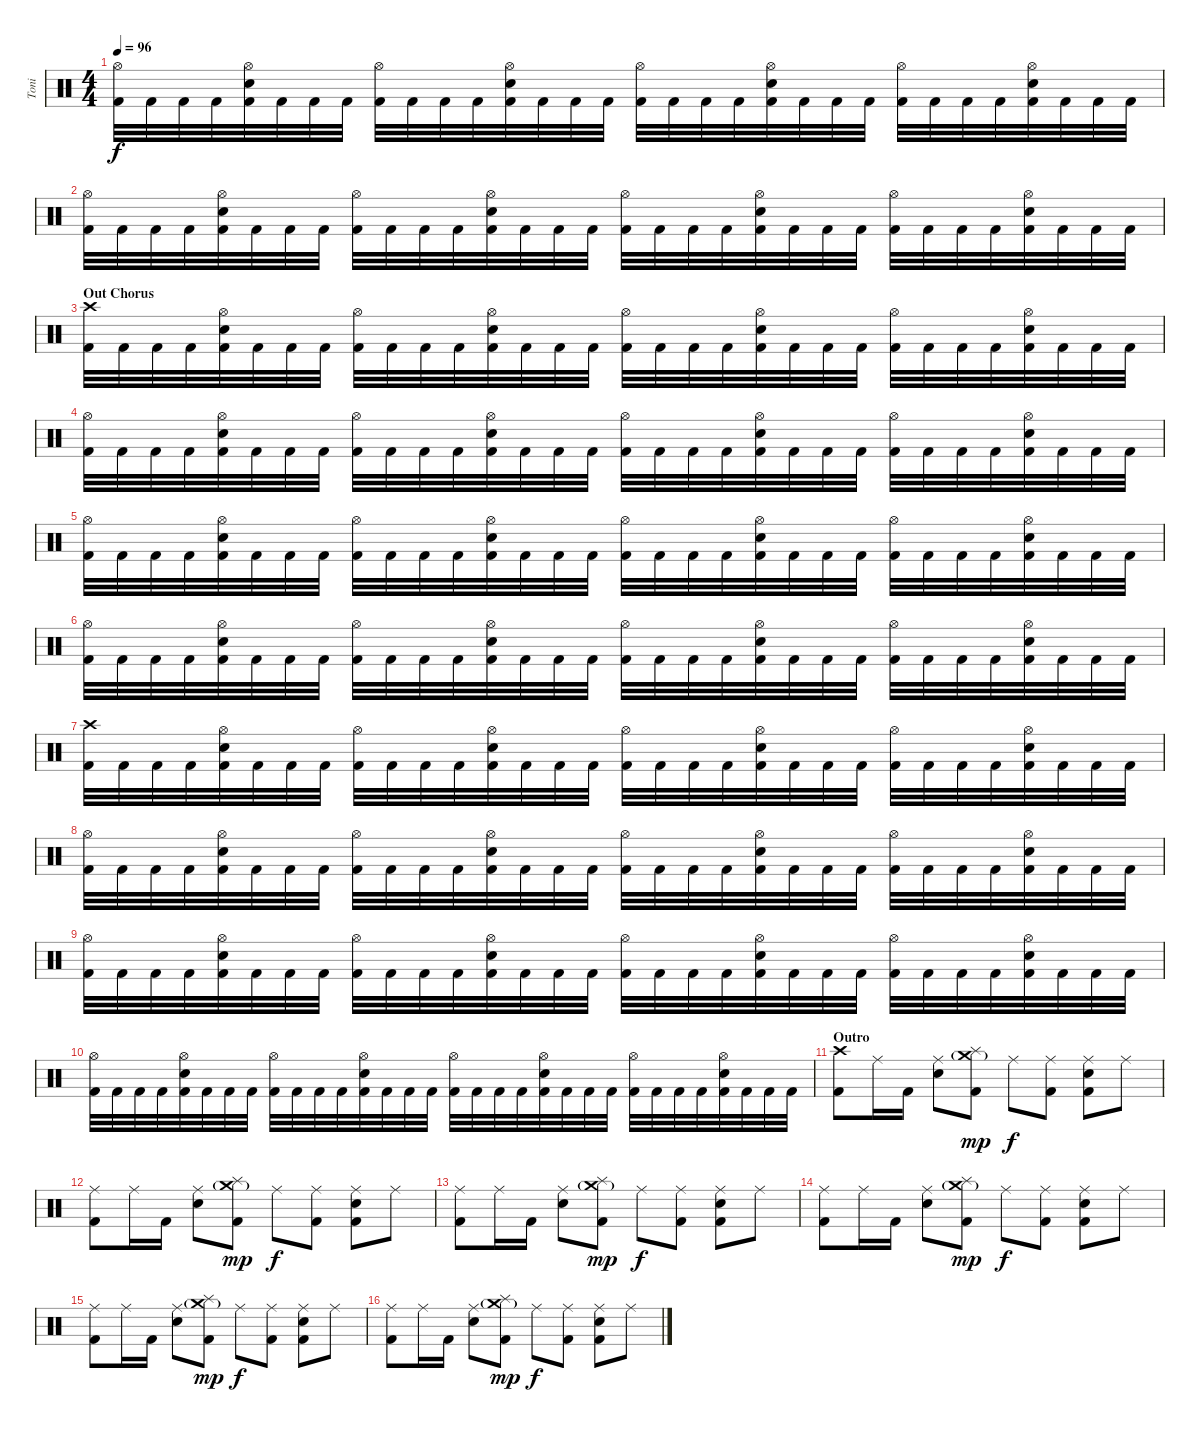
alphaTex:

\track ("Toni" "Toni") {instrument percussion}
\staff {score}
\articulation defaults
\ts (4 4)
\tempo 96
\clef neutral
\ks c
("Hi-Hat (open)" "Kick (hit) 2").32{dy f} "Kick (hit) 2".32 "Kick (hit) 2".32 "Kick (hit) 2".32 ("Hi-Hat (open)" "Electric Snare (hit)" "Kick (hit) 2").32 "Kick (hit) 2".32 "Kick (hit) 2".32 "Kick (hit) 2".32 ("Hi-Hat (open)" "Kick (hit) 2").32 "Kick (hit) 2".32 "Kick (hit) 2".32 "Kick (hit) 2".32 ("Hi-Hat (open)" "Electric Snare (hit)" "Kick (hit) 2").32 "Kick (hit) 2".32 "Kick (hit) 2".32 "Kick (hit) 2".32 ("Hi-Hat (open)" "Kick (hit) 2").32 "Kick (hit) 2".32 "Kick (hit) 2".32 "Kick (hit) 2".32 ("Hi-Hat (open)" "Electric Snare (hit)" "Kick (hit) 2").32 "Kick (hit) 2".32 "Kick (hit) 2".32 "Kick (hit) 2".32 ("Hi-Hat (open)" "Kick (hit) 2").32 "Kick (hit) 2".32 "Kick (hit) 2".32 "Kick (hit) 2".32 ("Hi-Hat (open)" "Electric Snare (hit)" "Kick (hit) 2").32 "Kick (hit) 2".32 "Kick (hit) 2".32 "Kick (hit) 2".32 |
("Hi-Hat (open)" "Kick (hit) 2").32 "Kick (hit) 2".32 "Kick (hit) 2".32 "Kick (hit) 2".32 ("Hi-Hat (open)" "Electric Snare (hit)" "Kick (hit) 2").32 "Kick (hit) 2".32 "Kick (hit) 2".32 "Kick (hit) 2".32 ("Hi-Hat (open)" "Kick (hit) 2").32 "Kick (hit) 2".32 "Kick (hit) 2".32 "Kick (hit) 2".32 ("Hi-Hat (open)" "Electric Snare (hit)" "Kick (hit) 2").32 "Kick (hit) 2".32 "Kick (hit) 2".32 "Kick (hit) 2".32 ("Hi-Hat (open)" "Kick (hit) 2").32 "Kick (hit) 2".32 "Kick (hit) 2".32 "Kick (hit) 2".32 ("Hi-Hat (open)" "Electric Snare (hit)" "Kick (hit) 2").32 "Kick (hit) 2".32 "Kick (hit) 2".32 "Kick (hit) 2".32 ("Hi-Hat (open)" "Kick (hit) 2").32 "Kick (hit) 2".32 "Kick (hit) 2".32 "Kick (hit) 2".32 ("Hi-Hat (open)" "Electric Snare (hit)" "Kick (hit) 2").32 "Kick (hit) 2".32 "Kick (hit) 2".32 "Kick (hit) 2".32 |
\section ("" "Out Chorus")
("Crash high (hit)" "Kick (hit) 2").32 "Kick (hit) 2".32 "Kick (hit) 2".32 "Kick (hit) 2".32 ("Hi-Hat (open)" "Electric Snare (hit)" "Kick (hit) 2").32 "Kick (hit) 2".32 "Kick (hit) 2".32 "Kick (hit) 2".32 ("Hi-Hat (open)" "Kick (hit) 2").32 "Kick (hit) 2".32 "Kick (hit) 2".32 "Kick (hit) 2".32 ("Hi-Hat (open)" "Electric Snare (hit)" "Kick (hit) 2").32 "Kick (hit) 2".32 "Kick (hit) 2".32 "Kick (hit) 2".32 ("Hi-Hat (open)" "Kick (hit) 2").32 "Kick (hit) 2".32 "Kick (hit) 2".32 "Kick (hit) 2".32 ("Hi-Hat (open)" "Electric Snare (hit)" "Kick (hit) 2").32 "Kick (hit) 2".32 "Kick (hit) 2".32 "Kick (hit) 2".32 ("Hi-Hat (open)" "Kick (hit) 2").32 "Kick (hit) 2".32 "Kick (hit) 2".32 "Kick (hit) 2".32 ("Hi-Hat (open)" "Electric Snare (hit)" "Kick (hit) 2").32 "Kick (hit) 2".32 "Kick (hit) 2".32 "Kick (hit) 2".32 |
("Hi-Hat (open)" "Kick (hit) 2").32 "Kick (hit) 2".32 "Kick (hit) 2".32 "Kick (hit) 2".32 ("Hi-Hat (open)" "Electric Snare (hit)" "Kick (hit) 2").32 "Kick (hit) 2".32 "Kick (hit) 2".32 "Kick (hit) 2".32 ("Hi-Hat (open)" "Kick (hit) 2").32 "Kick (hit) 2".32 "Kick (hit) 2".32 "Kick (hit) 2".32 ("Hi-Hat (open)" "Electric Snare (hit)" "Kick (hit) 2").32 "Kick (hit) 2".32 "Kick (hit) 2".32 "Kick (hit) 2".32 ("Hi-Hat (open)" "Kick (hit) 2").32 "Kick (hit) 2".32 "Kick (hit) 2".32 "Kick (hit) 2".32 ("Hi-Hat (open)" "Electric Snare (hit)" "Kick (hit) 2").32 "Kick (hit) 2".32 "Kick (hit) 2".32 "Kick (hit) 2".32 ("Hi-Hat (open)" "Kick (hit) 2").32 "Kick (hit) 2".32 "Kick (hit) 2".32 "Kick (hit) 2".32 ("Hi-Hat (open)" "Electric Snare (hit)" "Kick (hit) 2").32 "Kick (hit) 2".32 "Kick (hit) 2".32 "Kick (hit) 2".32 |
("Hi-Hat (open)" "Kick (hit) 2").32 "Kick (hit) 2".32 "Kick (hit) 2".32 "Kick (hit) 2".32 ("Hi-Hat (open)" "Electric Snare (hit)" "Kick (hit) 2").32 "Kick (hit) 2".32 "Kick (hit) 2".32 "Kick (hit) 2".32 ("Hi-Hat (open)" "Kick (hit) 2").32 "Kick (hit) 2".32 "Kick (hit) 2".32 "Kick (hit) 2".32 ("Hi-Hat (open)" "Electric Snare (hit)" "Kick (hit) 2").32 "Kick (hit) 2".32 "Kick (hit) 2".32 "Kick (hit) 2".32 ("Hi-Hat (open)" "Kick (hit) 2").32 "Kick (hit) 2".32 "Kick (hit) 2".32 "Kick (hit) 2".32 ("Hi-Hat (open)" "Electric Snare (hit)" "Kick (hit) 2").32 "Kick (hit) 2".32 "Kick (hit) 2".32 "Kick (hit) 2".32 ("Hi-Hat (open)" "Kick (hit) 2").32 "Kick (hit) 2".32 "Kick (hit) 2".32 "Kick (hit) 2".32 ("Hi-Hat (open)" "Electric Snare (hit)" "Kick (hit) 2").32 "Kick (hit) 2".32 "Kick (hit) 2".32 "Kick (hit) 2".32 |
("Hi-Hat (open)" "Kick (hit) 2").32 "Kick (hit) 2".32 "Kick (hit) 2".32 "Kick (hit) 2".32 ("Hi-Hat (open)" "Electric Snare (hit)" "Kick (hit) 2").32 "Kick (hit) 2".32 "Kick (hit) 2".32 "Kick (hit) 2".32 ("Hi-Hat (open)" "Kick (hit) 2").32 "Kick (hit) 2".32 "Kick (hit) 2".32 "Kick (hit) 2".32 ("Hi-Hat (open)" "Electric Snare (hit)" "Kick (hit) 2").32 "Kick (hit) 2".32 "Kick (hit) 2".32 "Kick (hit) 2".32 ("Hi-Hat (open)" "Kick (hit) 2").32 "Kick (hit) 2".32 "Kick (hit) 2".32 "Kick (hit) 2".32 ("Hi-Hat (open)" "Electric Snare (hit)" "Kick (hit) 2").32 "Kick (hit) 2".32 "Kick (hit) 2".32 "Kick (hit) 2".32 ("Hi-Hat (open)" "Kick (hit) 2").32 "Kick (hit) 2".32 "Kick (hit) 2".32 "Kick (hit) 2".32 ("Hi-Hat (open)" "Electric Snare (hit)" "Kick (hit) 2").32 "Kick (hit) 2".32 "Kick (hit) 2".32 "Kick (hit) 2".32 |
("Crash high (hit)" "Kick (hit) 2").32 "Kick (hit) 2".32 "Kick (hit) 2".32 "Kick (hit) 2".32 ("Hi-Hat (open)" "Electric Snare (hit)" "Kick (hit) 2").32 "Kick (hit) 2".32 "Kick (hit) 2".32 "Kick (hit) 2".32 ("Hi-Hat (open)" "Kick (hit) 2").32 "Kick (hit) 2".32 "Kick (hit) 2".32 "Kick (hit) 2".32 ("Hi-Hat (open)" "Electric Snare (hit)" "Kick (hit) 2").32 "Kick (hit) 2".32 "Kick (hit) 2".32 "Kick (hit) 2".32 ("Hi-Hat (open)" "Kick (hit) 2").32 "Kick (hit) 2".32 "Kick (hit) 2".32 "Kick (hit) 2".32 ("Hi-Hat (open)" "Electric Snare (hit)" "Kick (hit) 2").32 "Kick (hit) 2".32 "Kick (hit) 2".32 "Kick (hit) 2".32 ("Hi-Hat (open)" "Kick (hit) 2").32 "Kick (hit) 2".32 "Kick (hit) 2".32 "Kick (hit) 2".32 ("Hi-Hat (open)" "Electric Snare (hit)" "Kick (hit) 2").32 "Kick (hit) 2".32 "Kick (hit) 2".32 "Kick (hit) 2".32 |
("Hi-Hat (open)" "Kick (hit) 2").32 "Kick (hit) 2".32 "Kick (hit) 2".32 "Kick (hit) 2".32 ("Hi-Hat (open)" "Electric Snare (hit)" "Kick (hit) 2").32 "Kick (hit) 2".32 "Kick (hit) 2".32 "Kick (hit) 2".32 ("Hi-Hat (open)" "Kick (hit) 2").32 "Kick (hit) 2".32 "Kick (hit) 2".32 "Kick (hit) 2".32 ("Hi-Hat (open)" "Electric Snare (hit)" "Kick (hit) 2").32 "Kick (hit) 2".32 "Kick (hit) 2".32 "Kick (hit) 2".32 ("Hi-Hat (open)" "Kick (hit) 2").32 "Kick (hit) 2".32 "Kick (hit) 2".32 "Kick (hit) 2".32 ("Hi-Hat (open)" "Electric Snare (hit)" "Kick (hit) 2").32 "Kick (hit) 2".32 "Kick (hit) 2".32 "Kick (hit) 2".32 ("Hi-Hat (open)" "Kick (hit) 2").32 "Kick (hit) 2".32 "Kick (hit) 2".32 "Kick (hit) 2".32 ("Hi-Hat (open)" "Electric Snare (hit)" "Kick (hit) 2").32 "Kick (hit) 2".32 "Kick (hit) 2".32 "Kick (hit) 2".32 |
("Hi-Hat (open)" "Kick (hit) 2").32 "Kick (hit) 2".32 "Kick (hit) 2".32 "Kick (hit) 2".32 ("Hi-Hat (open)" "Electric Snare (hit)" "Kick (hit) 2").32 "Kick (hit) 2".32 "Kick (hit) 2".32 "Kick (hit) 2".32 ("Hi-Hat (open)" "Kick (hit) 2").32 "Kick (hit) 2".32 "Kick (hit) 2".32 "Kick (hit) 2".32 ("Hi-Hat (open)" "Electric Snare (hit)" "Kick (hit) 2").32 "Kick (hit) 2".32 "Kick (hit) 2".32 "Kick (hit) 2".32 ("Hi-Hat (open)" "Kick (hit) 2").32 "Kick (hit) 2".32 "Kick (hit) 2".32 "Kick (hit) 2".32 ("Hi-Hat (open)" "Electric Snare (hit)" "Kick (hit) 2").32 "Kick (hit) 2".32 "Kick (hit) 2".32 "Kick (hit) 2".32 ("Hi-Hat (open)" "Kick (hit) 2").32 "Kick (hit) 2".32 "Kick (hit) 2".32 "Kick (hit) 2".32 ("Hi-Hat (open)" "Electric Snare (hit)" "Kick (hit) 2").32 "Kick (hit) 2".32 "Kick (hit) 2".32 "Kick (hit) 2".32 |
("Hi-Hat (open)" "Kick (hit) 2").32 "Kick (hit) 2".32 "Kick (hit) 2".32 "Kick (hit) 2".32 ("Hi-Hat (open)" "Electric Snare (hit)" "Kick (hit) 2").32 "Kick (hit) 2".32 "Kick (hit) 2".32 "Kick (hit) 2".32 ("Hi-Hat (open)" "Kick (hit) 2").32 "Kick (hit) 2".32 "Kick (hit) 2".32 "Kick (hit) 2".32 ("Hi-Hat (open)" "Electric Snare (hit)" "Kick (hit) 2").32 "Kick (hit) 2".32 "Kick (hit) 2".32 "Kick (hit) 2".32 ("Hi-Hat (open)" "Kick (hit) 2").32 "Kick (hit) 2".32 "Kick (hit) 2".32 "Kick (hit) 2".32 ("Hi-Hat (open)" "Electric Snare (hit)" "Kick (hit) 2").32 "Kick (hit) 2".32 "Kick (hit) 2".32 "Kick (hit) 2".32 ("Hi-Hat (open)" "Kick (hit) 2").32 "Kick (hit) 2".32 "Kick (hit) 2".32 "Kick (hit) 2".32 ("Hi-Hat (open)" "Electric Snare (hit)" "Kick (hit) 2").32 "Kick (hit) 2".32 "Kick (hit) 2".32 "Kick (hit) 2".32 |
\section ("" "Outro")
("Crash high (hit)" "Kick (hit) 2").8 "Ride (middle)".16 "Kick (hit) 2".16 ("Ride (middle)" "Electric Snare (hit)").8 ("Crash medium (hit)"{g} "Splash (hit)" "Kick (hit) 2").8{dy mp} "Ride (middle)".8{dy f} ("Ride (middle)" "Kick (hit) 2").8 ("Ride (middle)" "Electric Snare (hit)" "Kick (hit) 2").8 "Ride (middle)".8 |
("Ride (middle)" "Kick (hit) 2").8 "Ride (middle)".16 "Kick (hit) 2".16 ("Ride (middle)" "Electric Snare (hit)").8 ("Crash medium (hit)"{g} "Splash (hit)" "Kick (hit) 2").8{dy mp} "Ride (middle)".8{dy f} ("Ride (middle)" "Kick (hit) 2").8 ("Ride (middle)" "Electric Snare (hit)" "Kick (hit) 2").8 "Ride (middle)".8 |
("Ride (middle)" "Kick (hit) 2").8 "Ride (middle)".16 "Kick (hit) 2".16 ("Ride (middle)" "Electric Snare (hit)").8 ("Crash medium (hit)"{g} "Splash (hit)" "Kick (hit) 2").8{dy mp} "Ride (middle)".8{dy f} ("Ride (middle)" "Kick (hit) 2").8 ("Ride (middle)" "Electric Snare (hit)" "Kick (hit) 2").8 "Ride (middle)".8 |
("Ride (middle)" "Kick (hit) 2").8 "Ride (middle)".16 "Kick (hit) 2".16 ("Ride (middle)" "Electric Snare (hit)").8 ("Crash medium (hit)"{g} "Splash (hit)" "Kick (hit) 2").8{dy mp} "Ride (middle)".8{dy f} ("Ride (middle)" "Kick (hit) 2").8 ("Ride (middle)" "Electric Snare (hit)" "Kick (hit) 2").8 "Ride (middle)".8 |
("Ride (middle)" "Kick (hit) 2").8 "Ride (middle)".16 "Kick (hit) 2".16 ("Ride (middle)" "Electric Snare (hit)").8 ("Crash medium (hit)"{g} "Splash (hit)" "Kick (hit) 2").8{dy mp} "Ride (middle)".8{dy f} ("Ride (middle)" "Kick (hit) 2").8 ("Ride (middle)" "Electric Snare (hit)" "Kick (hit) 2").8 "Ride (middle)".8 |
("Ride (middle)" "Kick (hit) 2").8 "Ride (middle)".16 "Kick (hit) 2".16 ("Ride (middle)" "Electric Snare (hit)").8 ("Crash medium (hit)"{g} "Splash (hit)" "Kick (hit) 2").8{dy mp} "Ride (middle)".8{dy f} ("Ride (middle)" "Kick (hit) 2").8 ("Ride (middle)" "Electric Snare (hit)" "Kick (hit) 2").8 "Ride (middle)".8
